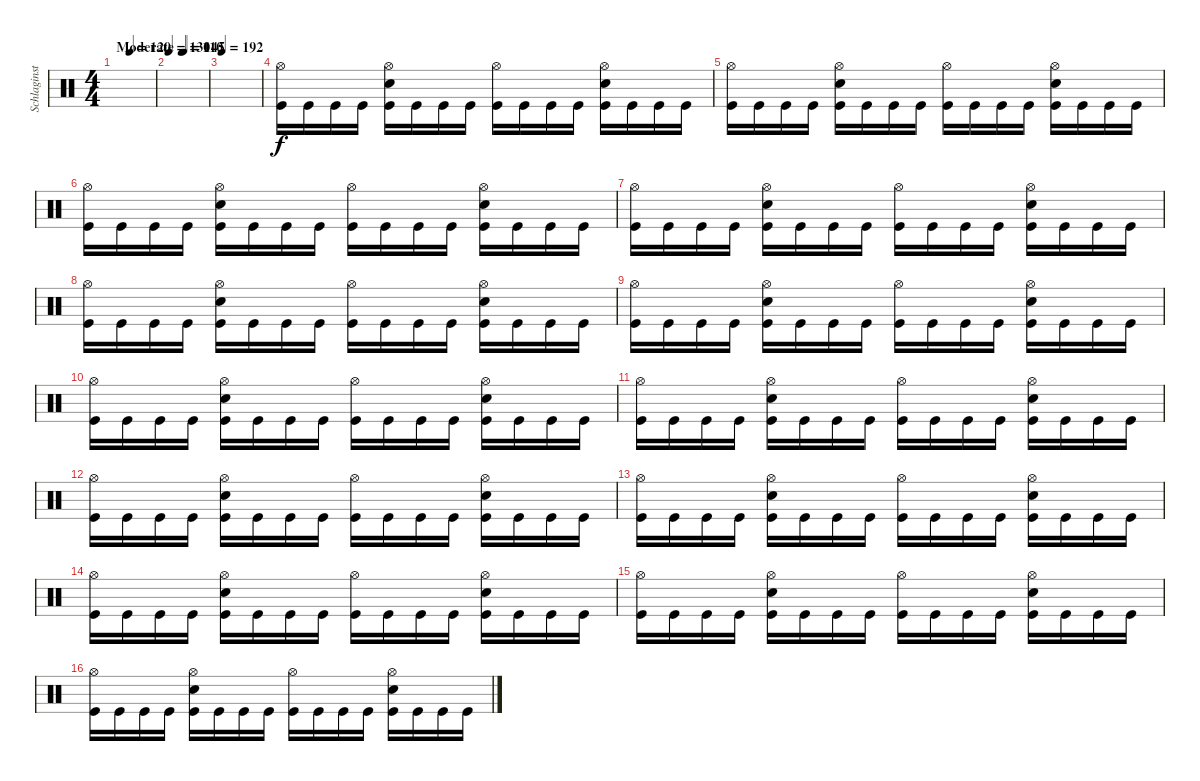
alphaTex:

\track ("Schlaginstrumente - Auswahl" "Schlaginst") {instrument percussion}
\staff {score}
\articulation defaults
\ts (4 4)
\tempo (110 "Moderate")
\tempo (120 0.375)
\tempo (110 "Moderate")
\clef neutral
\ks c
|
\tempo 130
\tempo (145 0.375)
|
\tempo 192
|
("Hi-Hat (open)" "Kick (hit)").16 "Kick (hit)".16 "Kick (hit)".16 "Kick (hit)".16 ("Hi-Hat (open)" "Snare (hit) 2" "Kick (hit)").16 "Kick (hit)".16 "Kick (hit)".16 "Kick (hit)".16 ("Hi-Hat (open)" "Kick (hit)").16 "Kick (hit)".16 "Kick (hit)".16 "Kick (hit)".16 ("Hi-Hat (open)" "Snare (hit) 2" "Kick (hit)").16 "Kick (hit)".16 "Kick (hit)".16 "Kick (hit)".16 |
("Hi-Hat (open)" "Kick (hit)").16 "Kick (hit)".16 "Kick (hit)".16 "Kick (hit)".16 ("Hi-Hat (open)" "Snare (hit) 2" "Kick (hit)").16 "Kick (hit)".16 "Kick (hit)".16 "Kick (hit)".16 ("Hi-Hat (open)" "Kick (hit)").16 "Kick (hit)".16 "Kick (hit)".16 "Kick (hit)".16 ("Hi-Hat (open)" "Snare (hit) 2" "Kick (hit)").16 "Kick (hit)".16 "Kick (hit)".16 "Kick (hit)".16 |
("Hi-Hat (open)" "Kick (hit)").16 "Kick (hit)".16 "Kick (hit)".16 "Kick (hit)".16 ("Hi-Hat (open)" "Snare (hit) 2" "Kick (hit)").16 "Kick (hit)".16 "Kick (hit)".16 "Kick (hit)".16 ("Hi-Hat (open)" "Kick (hit)").16 "Kick (hit)".16 "Kick (hit)".16 "Kick (hit)".16 ("Hi-Hat (open)" "Snare (hit) 2" "Kick (hit)").16 "Kick (hit)".16 "Kick (hit)".16 "Kick (hit)".16 |
("Hi-Hat (open)" "Kick (hit)").16 "Kick (hit)".16 "Kick (hit)".16 "Kick (hit)".16 ("Hi-Hat (open)" "Snare (hit) 2" "Kick (hit)").16 "Kick (hit)".16 "Kick (hit)".16 "Kick (hit)".16 ("Hi-Hat (open)" "Kick (hit)").16 "Kick (hit)".16 "Kick (hit)".16 "Kick (hit)".16 ("Hi-Hat (open)" "Snare (hit) 2" "Kick (hit)").16 "Kick (hit)".16 "Kick (hit)".16 "Kick (hit)".16 |
("Hi-Hat (open)" "Kick (hit)").16 "Kick (hit)".16 "Kick (hit)".16 "Kick (hit)".16 ("Hi-Hat (open)" "Snare (hit) 2" "Kick (hit)").16 "Kick (hit)".16 "Kick (hit)".16 "Kick (hit)".16 ("Hi-Hat (open)" "Kick (hit)").16 "Kick (hit)".16 "Kick (hit)".16 "Kick (hit)".16 ("Hi-Hat (open)" "Snare (hit) 2" "Kick (hit)").16 "Kick (hit)".16 "Kick (hit)".16 "Kick (hit)".16 |
("Hi-Hat (open)" "Kick (hit)").16 "Kick (hit)".16 "Kick (hit)".16 "Kick (hit)".16 ("Hi-Hat (open)" "Snare (hit) 2" "Kick (hit)").16 "Kick (hit)".16 "Kick (hit)".16 "Kick (hit)".16 ("Hi-Hat (open)" "Kick (hit)").16 "Kick (hit)".16 "Kick (hit)".16 "Kick (hit)".16 ("Hi-Hat (open)" "Snare (hit) 2" "Kick (hit)").16 "Kick (hit)".16 "Kick (hit)".16 "Kick (hit)".16 |
("Hi-Hat (open)" "Kick (hit)").16 "Kick (hit)".16 "Kick (hit)".16 "Kick (hit)".16 ("Hi-Hat (open)" "Snare (hit) 2" "Kick (hit)").16 "Kick (hit)".16 "Kick (hit)".16 "Kick (hit)".16 ("Hi-Hat (open)" "Kick (hit)").16 "Kick (hit)".16 "Kick (hit)".16 "Kick (hit)".16 ("Hi-Hat (open)" "Snare (hit) 2" "Kick (hit)").16 "Kick (hit)".16 "Kick (hit)".16 "Kick (hit)".16 |
("Hi-Hat (open)" "Kick (hit)").16 "Kick (hit)".16 "Kick (hit)".16 "Kick (hit)".16 ("Hi-Hat (open)" "Snare (hit) 2" "Kick (hit)").16 "Kick (hit)".16 "Kick (hit)".16 "Kick (hit)".16 ("Hi-Hat (open)" "Kick (hit)").16 "Kick (hit)".16 "Kick (hit)".16 "Kick (hit)".16 ("Hi-Hat (open)" "Snare (hit) 2" "Kick (hit)").16 "Kick (hit)".16 "Kick (hit)".16 "Kick (hit)".16 |
("Hi-Hat (open)" "Kick (hit)").16 "Kick (hit)".16 "Kick (hit)".16 "Kick (hit)".16 ("Hi-Hat (open)" "Snare (hit) 2" "Kick (hit)").16 "Kick (hit)".16 "Kick (hit)".16 "Kick (hit)".16 ("Hi-Hat (open)" "Kick (hit)").16 "Kick (hit)".16 "Kick (hit)".16 "Kick (hit)".16 ("Hi-Hat (open)" "Snare (hit) 2" "Kick (hit)").16 "Kick (hit)".16 "Kick (hit)".16 "Kick (hit)".16 |
("Hi-Hat (open)" "Kick (hit)").16 "Kick (hit)".16 "Kick (hit)".16 "Kick (hit)".16 ("Hi-Hat (open)" "Snare (hit) 2" "Kick (hit)").16 "Kick (hit)".16 "Kick (hit)".16 "Kick (hit)".16 ("Hi-Hat (open)" "Kick (hit)").16 "Kick (hit)".16 "Kick (hit)".16 "Kick (hit)".16 ("Hi-Hat (open)" "Snare (hit) 2" "Kick (hit)").16 "Kick (hit)".16 "Kick (hit)".16 "Kick (hit)".16 |
("Hi-Hat (open)" "Kick (hit)").16 "Kick (hit)".16 "Kick (hit)".16 "Kick (hit)".16 ("Hi-Hat (open)" "Snare (hit) 2" "Kick (hit)").16 "Kick (hit)".16 "Kick (hit)".16 "Kick (hit)".16 ("Hi-Hat (open)" "Kick (hit)").16 "Kick (hit)".16 "Kick (hit)".16 "Kick (hit)".16 ("Hi-Hat (open)" "Snare (hit) 2" "Kick (hit)").16 "Kick (hit)".16 "Kick (hit)".16 "Kick (hit)".16 |
("Hi-Hat (open)" "Kick (hit)").16 "Kick (hit)".16 "Kick (hit)".16 "Kick (hit)".16 ("Hi-Hat (open)" "Snare (hit) 2" "Kick (hit)").16 "Kick (hit)".16 "Kick (hit)".16 "Kick (hit)".16 ("Hi-Hat (open)" "Kick (hit)").16 "Kick (hit)".16 "Kick (hit)".16 "Kick (hit)".16 ("Hi-Hat (open)" "Snare (hit) 2" "Kick (hit)").16 "Kick (hit)".16 "Kick (hit)".16 "Kick (hit)".16 |
("Hi-Hat (open)" "Kick (hit)").16 "Kick (hit)".16 "Kick (hit)".16 "Kick (hit)".16 ("Hi-Hat (open)" "Snare (hit) 2" "Kick (hit)").16 "Kick (hit)".16 "Kick (hit)".16 "Kick (hit)".16 ("Hi-Hat (open)" "Kick (hit)").16 "Kick (hit)".16 "Kick (hit)".16 "Kick (hit)".16 ("Hi-Hat (open)" "Snare (hit) 2" "Kick (hit)").16 "Kick (hit)".16 "Kick (hit)".16 "Kick (hit)".16
